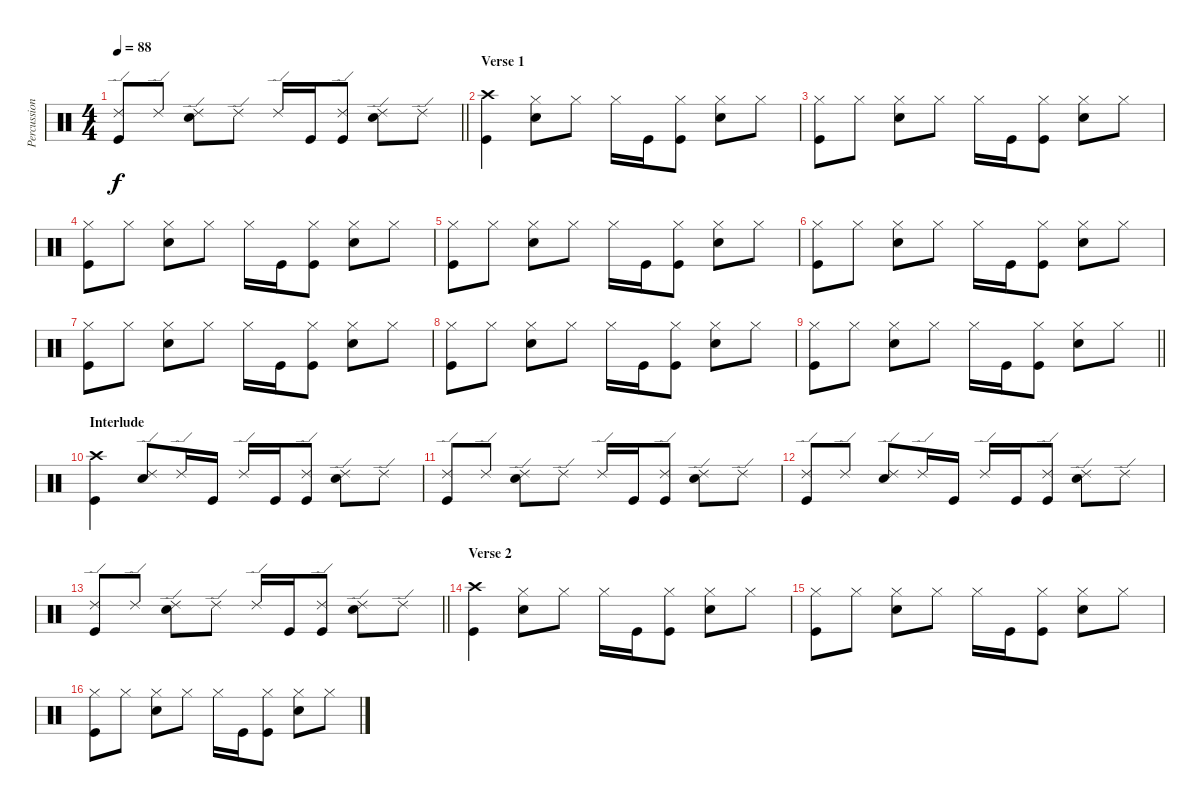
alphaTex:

\track ("Percussion" "Percussion") {instrument percussion}
\staff {score}
\articulation defaults
\ts (4 4)
\tempo 88
\clef neutral
\barLineRight lightlight
\ks c
("Ride (edge) 2" "Kick (hit)").8{dy f} "Ride (edge) 2".8 ("Ride (edge) 2" "Snare (hit) 2").8 "Ride (edge) 2".8 "Ride (edge) 2".16 "Kick (hit)".16 ("Ride (edge) 2" "Kick (hit)").8 ("Ride (edge) 2" "Snare (hit) 2").8 "Ride (edge) 2".8 |
\section ("" "Verse 1")
("Crash high (hit)" "Kick (hit)").4 ("Hi-Hat (closed)" "Snare (hit) 2").8 "Hi-Hat (closed)".8 "Hi-Hat (closed)".16 "Kick (hit)".16 ("Hi-Hat (closed)" "Kick (hit)").8 ("Hi-Hat (closed)" "Snare (hit) 2").8 "Hi-Hat (closed)".8 |
("Hi-Hat (closed)" "Kick (hit)").8 "Hi-Hat (closed)".8 ("Hi-Hat (closed)" "Snare (hit) 2").8 "Hi-Hat (closed)".8 "Hi-Hat (closed)".16 "Kick (hit)".16 ("Hi-Hat (closed)" "Kick (hit)").8 ("Hi-Hat (closed)" "Snare (hit) 2").8 "Hi-Hat (closed)".8 |
("Hi-Hat (closed)" "Kick (hit)").8 "Hi-Hat (closed)".8 ("Hi-Hat (closed)" "Snare (hit) 2").8 "Hi-Hat (closed)".8 "Hi-Hat (closed)".16 "Kick (hit)".16 ("Hi-Hat (closed)" "Kick (hit)").8 ("Hi-Hat (closed)" "Snare (hit) 2").8 "Hi-Hat (closed)".8 |
("Hi-Hat (closed)" "Kick (hit)").8 "Hi-Hat (closed)".8 ("Hi-Hat (closed)" "Snare (hit) 2").8 "Hi-Hat (closed)".8 "Hi-Hat (closed)".16 "Kick (hit)".16 ("Hi-Hat (closed)" "Kick (hit)").8 ("Hi-Hat (closed)" "Snare (hit) 2").8 "Hi-Hat (closed)".8 |
("Hi-Hat (closed)" "Kick (hit)").8 "Hi-Hat (closed)".8 ("Hi-Hat (closed)" "Snare (hit) 2").8 "Hi-Hat (closed)".8 "Hi-Hat (closed)".16 "Kick (hit)".16 ("Hi-Hat (closed)" "Kick (hit)").8 ("Hi-Hat (closed)" "Snare (hit) 2").8 "Hi-Hat (closed)".8 |
("Hi-Hat (closed)" "Kick (hit)").8 "Hi-Hat (closed)".8 ("Hi-Hat (closed)" "Snare (hit) 2").8 "Hi-Hat (closed)".8 "Hi-Hat (closed)".16 "Kick (hit)".16 ("Hi-Hat (closed)" "Kick (hit)").8 ("Hi-Hat (closed)" "Snare (hit) 2").8 "Hi-Hat (closed)".8 |
("Hi-Hat (closed)" "Kick (hit)").8 "Hi-Hat (closed)".8 ("Hi-Hat (closed)" "Snare (hit) 2").8 "Hi-Hat (closed)".8 "Hi-Hat (closed)".16 "Kick (hit)".16 ("Hi-Hat (closed)" "Kick (hit)").8 ("Hi-Hat (closed)" "Snare (hit) 2").8 "Hi-Hat (closed)".8 |
\barLineRight lightlight
("Hi-Hat (closed)" "Kick (hit)").8 "Hi-Hat (closed)".8 ("Hi-Hat (closed)" "Snare (hit) 2").8 "Hi-Hat (closed)".8 "Hi-Hat (closed)".16 "Kick (hit)".16 ("Hi-Hat (closed)" "Kick (hit)").8 ("Hi-Hat (closed)" "Snare (hit) 2").8 "Hi-Hat (closed)".8 |
\section ("" "Interlude")
("Crash high (hit)" "Kick (hit)").4 ("Ride (edge) 2" "Snare (hit) 2").8 "Ride (edge) 2".16 "Kick (hit)".16 "Ride (edge) 2".16 "Kick (hit)".16 ("Ride (edge) 2" "Kick (hit)").8 ("Ride (edge) 2" "Snare (hit) 2").8 "Ride (edge) 2".8 |
("Ride (edge) 2" "Kick (hit)").8 "Ride (edge) 2".8 ("Ride (edge) 2" "Snare (hit) 2").8 "Ride (edge) 2".8 "Ride (edge) 2".16 "Kick (hit)".16 ("Ride (edge) 2" "Kick (hit)").8 ("Ride (edge) 2" "Snare (hit) 2").8 "Ride (edge) 2".8 |
("Ride (edge) 2" "Kick (hit)").8 "Ride (edge) 2".8 ("Ride (edge) 2" "Snare (hit) 2").8 "Ride (edge) 2".16 "Kick (hit)".16 "Ride (edge) 2".16 "Kick (hit)".16 ("Ride (edge) 2" "Kick (hit)").8 ("Ride (edge) 2" "Snare (hit) 2").8 "Ride (edge) 2".8 |
\barLineRight lightlight
("Ride (edge) 2" "Kick (hit)").8 "Ride (edge) 2".8 ("Ride (edge) 2" "Snare (hit) 2").8 "Ride (edge) 2".8 "Ride (edge) 2".16 "Kick (hit)".16 ("Ride (edge) 2" "Kick (hit)").8 ("Ride (edge) 2" "Snare (hit) 2").8 "Ride (edge) 2".8 |
\section ("" "Verse 2")
("Crash high (hit)" "Kick (hit)").4 ("Hi-Hat (closed)" "Snare (hit) 2").8 "Hi-Hat (closed)".8 "Hi-Hat (closed)".16 "Kick (hit)".16 ("Hi-Hat (closed)" "Kick (hit)").8 ("Hi-Hat (closed)" "Snare (hit) 2").8 "Hi-Hat (closed)".8 |
("Hi-Hat (closed)" "Kick (hit)").8 "Hi-Hat (closed)".8 ("Hi-Hat (closed)" "Snare (hit) 2").8 "Hi-Hat (closed)".8 "Hi-Hat (closed)".16 "Kick (hit)".16 ("Hi-Hat (closed)" "Kick (hit)").8 ("Hi-Hat (closed)" "Snare (hit) 2").8 "Hi-Hat (closed)".8 |
("Hi-Hat (closed)" "Kick (hit)").8 "Hi-Hat (closed)".8 ("Hi-Hat (closed)" "Snare (hit) 2").8 "Hi-Hat (closed)".8 "Hi-Hat (closed)".16 "Kick (hit)".16 ("Hi-Hat (closed)" "Kick (hit)").8 ("Hi-Hat (closed)" "Snare (hit) 2").8 "Hi-Hat (closed)".8
